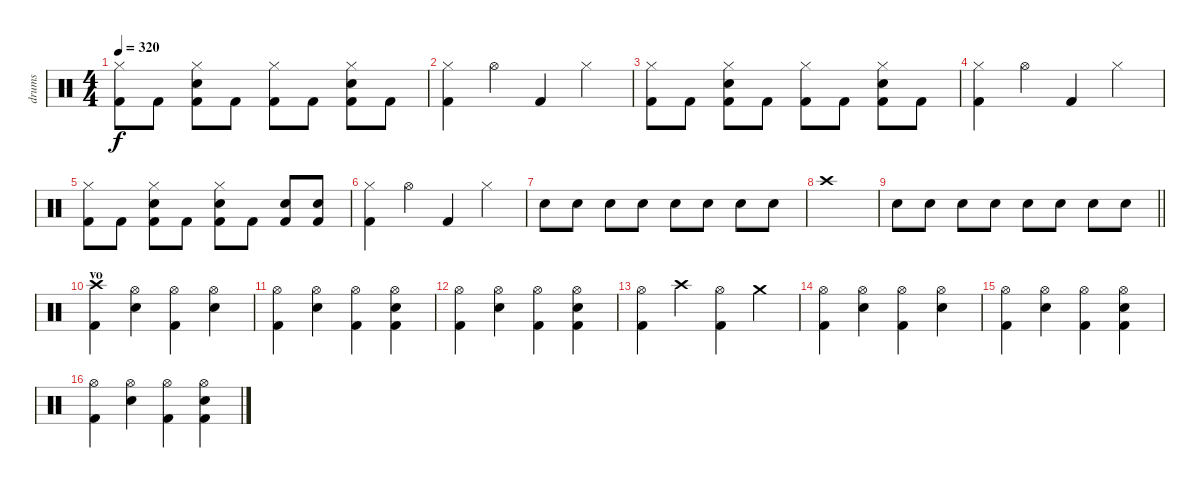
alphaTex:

\track ("drums" "drums") {instrument percussion}
\staff {score}
\articulation defaults
\ts (4 4)
\tempo 320
\clef neutral
\ks c
("Hi-Hat (closed)" "Kick (hit) 2").8{dy f} "Kick (hit) 2".8 ("Hi-Hat (closed)" "Kick (hit) 2" "Snare (hit) 2").8 "Kick (hit) 2".8 ("Hi-Hat (closed)" "Kick (hit) 2").8 "Kick (hit) 2".8 ("Hi-Hat (closed)" "Kick (hit) 2" "Snare (hit) 2").8 "Kick (hit) 2".8 |
("Hi-Hat (closed)" "Kick (hit) 2").4 "Hi-Hat (open)".4 "Kick (hit) 2".4 "Hi-Hat (closed)".4 |
("Hi-Hat (closed)" "Kick (hit) 2").8 "Kick (hit) 2".8 ("Hi-Hat (closed)" "Kick (hit) 2" "Snare (hit) 2").8 "Kick (hit) 2".8 ("Hi-Hat (closed)" "Kick (hit) 2").8 "Kick (hit) 2".8 ("Hi-Hat (closed)" "Kick (hit) 2" "Snare (hit) 2").8 "Kick (hit) 2".8 |
("Hi-Hat (closed)" "Kick (hit) 2").4 "Hi-Hat (open)".4 "Kick (hit) 2".4 "Hi-Hat (closed)".4 |
("Hi-Hat (closed)" "Kick (hit) 2").8 "Kick (hit) 2".8 ("Hi-Hat (closed)" "Kick (hit) 2" "Snare (hit) 2").8 "Kick (hit) 2".8 ("Hi-Hat (closed)" "Kick (hit) 2" "Snare (hit) 2").8 "Kick (hit) 2".8 ("Kick (hit) 2" "Snare (hit) 2").8 ("Kick (hit) 2" "Snare (hit) 2").8 |
("Hi-Hat (closed)" "Kick (hit) 2").4 "Hi-Hat (open)".4 "Kick (hit) 2".4 "Hi-Hat (closed)".4 |
"Snare (hit) 2".8 "Snare (hit) 2".8 "Snare (hit) 2".8 "Snare (hit) 2".8 "Snare (hit) 2".8 "Snare (hit) 2".8 "Snare (hit) 2".8 "Snare (hit) 2".8 |
"Crash high (hit)".1 |
\barLineRight lightlight "Snare (hit) 2".8 "Snare (hit) 2".8 "Snare (hit) 2".8 "Snare (hit) 2".8 "Snare (hit) 2".8 "Snare (hit) 2".8 "Snare (hit) 2".8 "Snare (hit) 2".8
|
\section ("" "vo ")
("Crash high (hit)" "Kick (hit) 2").4 ("Hi-Hat (open)" "Snare (hit) 2").4 ("Hi-Hat (open)" "Kick (hit) 2").4 ("Hi-Hat (open)" "Snare (hit) 2").4 |
("Hi-Hat (open)" "Kick (hit) 2").4 ("Hi-Hat (open)" "Snare (hit) 2").4 ("Hi-Hat (open)" "Kick (hit) 2").4 ("Hi-Hat (open)" "Snare (hit) 2" "Kick (hit) 2").4 |
("Hi-Hat (open)" "Kick (hit) 2").4 ("Hi-Hat (open)" "Snare (hit) 2").4 ("Hi-Hat (open)" "Kick (hit) 2").4 ("Hi-Hat (open)" "Snare (hit) 2" "Kick (hit) 2").4 |
("Hi-Hat (open)" "Kick (hit) 2").4 "Crash high (hit)".4 ("Hi-Hat (open)" "Kick (hit) 2").4 "Crash medium (hit)".4 |
("Hi-Hat (open)" "Kick (hit) 2").4 ("Hi-Hat (open)" "Snare (hit) 2").4 ("Hi-Hat (open)" "Kick (hit) 2").4 ("Hi-Hat (open)" "Snare (hit) 2").4 |
("Hi-Hat (open)" "Kick (hit) 2").4 ("Hi-Hat (open)" "Snare (hit) 2").4 ("Hi-Hat (open)" "Kick (hit) 2").4 ("Hi-Hat (open)" "Snare (hit) 2" "Kick (hit) 2").4 |
("Hi-Hat (open)" "Kick (hit) 2").4 ("Hi-Hat (open)" "Snare (hit) 2").4 ("Hi-Hat (open)" "Kick (hit) 2").4 ("Hi-Hat (open)" "Snare (hit) 2" "Kick (hit) 2").4
